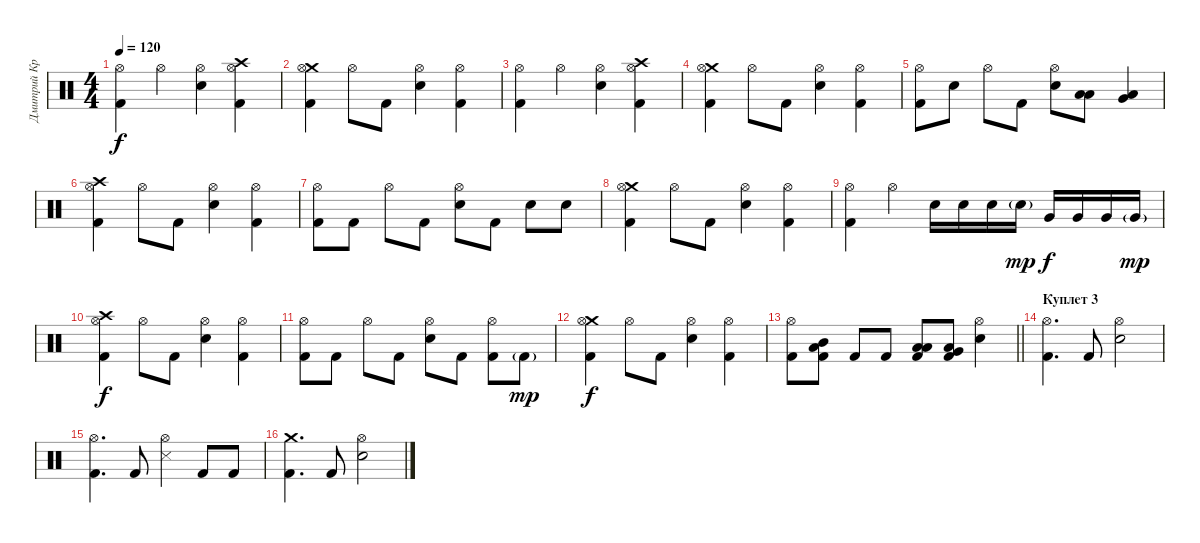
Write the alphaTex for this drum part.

\track ("Дмитрий Кривенков       (Ударные)" "Дмитрий Кр") {instrument percussion}
\staff {score}
\articulation defaults
\ts (4 4)
\tempo 120
\clef neutral
\ks c
("Hi-Hat (open)" "Kick (hit) 2").4{dy f} "Hi-Hat (open)".4 ("Hi-Hat (open)" "Electric Snare (hit)").4 ("Crash high (hit)" "Hi-Hat (open)" "Kick (hit) 2").4 |
("Crash medium (hit)" "Hi-Hat (open)" "Kick (hit) 2").4 "Hi-Hat (open)".8 "Kick (hit) 2".8 ("Hi-Hat (open)" "Electric Snare (hit)").4 ("Hi-Hat (open)" "Kick (hit) 2").4 |
("Hi-Hat (open)" "Kick (hit) 2").4 "Hi-Hat (open)".4 ("Hi-Hat (open)" "Electric Snare (hit)").4 ("Crash high (hit)" "Hi-Hat (open)" "Kick (hit) 2").4 |
("Crash medium (hit)" "Hi-Hat (open)" "Kick (hit) 2").4 "Hi-Hat (open)".8 "Kick (hit) 2".8 ("Hi-Hat (open)" "Electric Snare (hit)").4 ("Hi-Hat (open)" "Kick (hit) 2").4 |
("Hi-Hat (open)" "Kick (hit) 2").8 "Electric Snare (hit)".8 "Hi-Hat (open)".8 "Kick (hit) 2".8 ("Hi-Hat (open)" "Electric Snare (hit)").8 ("Low Tom (hit)" "Low Floor Tom (hit)").8 ("Very Low Tom (hit)" "Low Floor Tom (hit)").4 |
("Crash high (hit)" "Hi-Hat (open)" "Kick (hit) 2").4 "Hi-Hat (open)".8 "Kick (hit) 2".8 ("Hi-Hat (open)" "Electric Snare (hit)").4 ("Hi-Hat (open)" "Kick (hit) 2").4 |
("Hi-Hat (open)" "Kick (hit) 2").8 "Kick (hit) 2".8 "Hi-Hat (open)".8 "Kick (hit) 2".8 ("Hi-Hat (open)" "Electric Snare (hit)").8 "Kick (hit) 2".8 "Electric Snare (hit)".8 "Electric Snare (hit)".8 |
("Crash medium (hit)" "Hi-Hat (open)" "Kick (hit) 2").4 "Hi-Hat (open)".8 "Kick (hit) 2".8 ("Hi-Hat (open)" "Electric Snare (hit)").4 ("Hi-Hat (open)" "Kick (hit) 2").4 |
("Hi-Hat (open)" "Kick (hit) 2").4 "Hi-Hat (open)".4 "Electric Snare (hit)".16 "Electric Snare (hit)".16 "Electric Snare (hit)".16 "Electric Snare (hit)"{g}.16{dy mp} "Very Low Tom (hit)".16{dy f} "Very Low Tom (hit)".16 "Very Low Tom (hit)".16 "Very Low Tom (hit)"{g}.16{dy mp} |
("Crash high (hit)" "Hi-Hat (open)" "Kick (hit) 2").4{dy f} "Hi-Hat (open)".8 "Kick (hit) 2".8 ("Hi-Hat (open)" "Electric Snare (hit)").4 ("Hi-Hat (open)" "Kick (hit) 2").4 |
("Hi-Hat (open)" "Kick (hit) 2").8 "Kick (hit) 2".8 "Hi-Hat (open)".8 "Kick (hit) 2".8 ("Hi-Hat (open)" "Electric Snare (hit)").8 "Kick (hit) 2".8 ("Hi-Hat (open)" "Kick (hit) 2").8 "Kick (hit) 2"{g}.8{dy mp} |
("Crash medium (hit)" "Hi-Hat (open)" "Kick (hit) 2").4{dy f} "Hi-Hat (open)".8 "Kick (hit) 2".8 ("Hi-Hat (open)" "Electric Snare (hit)").4 ("Hi-Hat (open)" "Kick (hit) 2").4 |
\barLineRight lightlight
("Hi-Hat (open)" "Kick (hit) 2").8 ("Mid Tom (hit)" "Low Floor Tom (hit)" "Kick (hit) 2").8 "Kick (hit) 2".8 "Kick (hit) 2".8 ("Low Tom (hit)" "Low Floor Tom (hit)" "Kick (hit) 2").8 ("Very Low Tom (hit)" "Low Floor Tom (hit)" "Kick (hit) 2").8 ("Hi-Hat (open)" "Electric Snare (hit)").4 |
\section ("" "Куплет 3")
("Hi-Hat (open)" "Kick (hit) 2").4{d} "Kick (hit) 2".8 ("Hi-Hat (open)" "Electric Snare (hit)").2 |
("Hi-Hat (open)" "Kick (hit) 2").4{d} "Kick (hit) 2".8 ("Snare (side stick) 3" "Hi-Hat (open)").4 "Kick (hit) 2".8 "Kick (hit) 2".8 |
("Crash medium (hit)" "Kick (hit) 2").4{d} "Kick (hit) 2".8 ("Hi-Hat (open)" "Electric Snare (hit)").2
